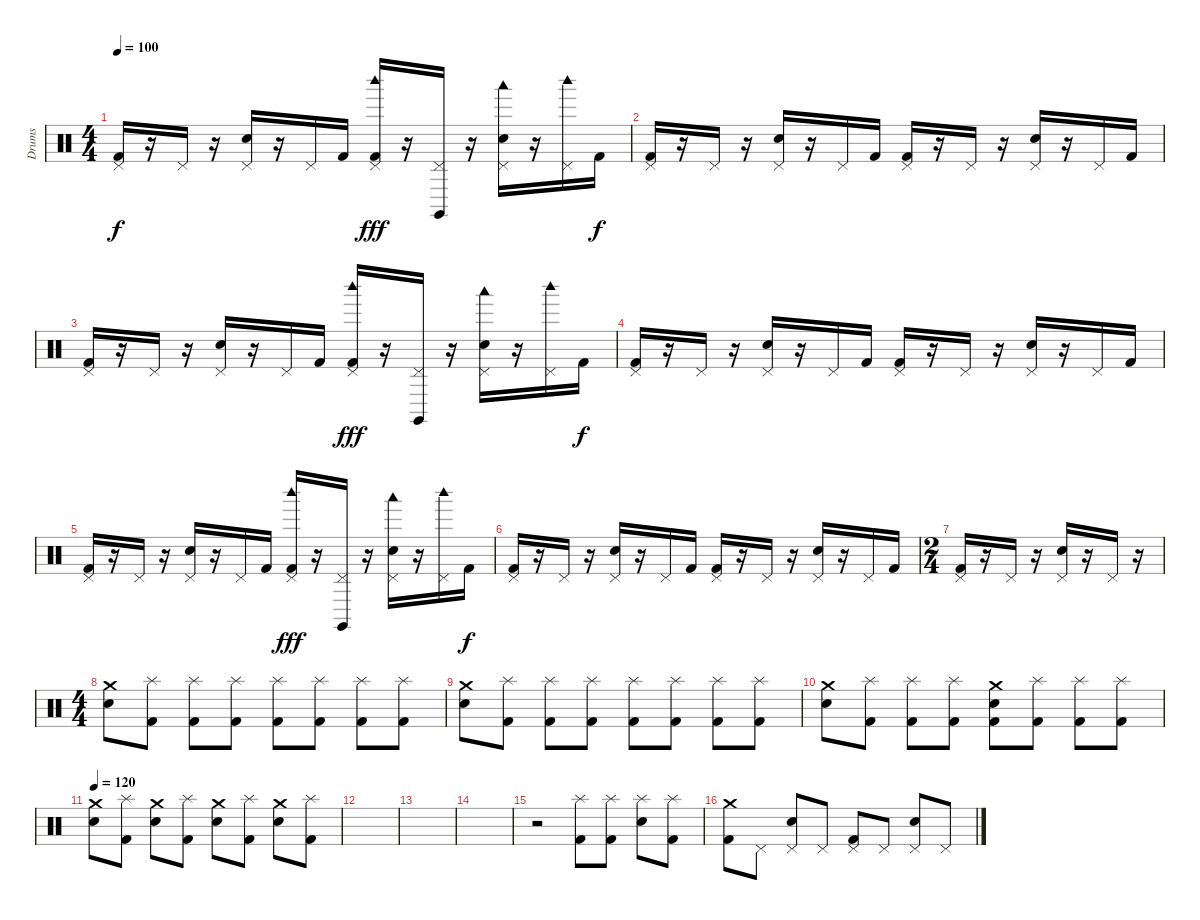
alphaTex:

\track ("Drums" "Drums") {instrument percussion}
\staff {score}
\articulation defaults
\ts (4 4)
\tempo 100
\clef neutral
\ks c
("Pedal Hi-Hat (hit)" "Kick (hit) 2").16{dy f} r.16 "Pedal Hi-Hat (hit)".16 r.16 ("Pedal Hi-Hat (hit)" "Electric Snare (hit)").16 r.16 "Pedal Hi-Hat (hit)".16 "Kick (hit) 2".16 ("Pedal Hi-Hat (hit)" "Woodblock high (hit)" "Kick (hit) 2").16{dy fff} r.16 ("Pedal Hi-Hat (hit)" "Claves (hit)").16 r.16 ("Pedal Hi-Hat (hit)" "Woodblock low (hit)" "Electric Snare (hit)").16 r.16 ("Pedal Hi-Hat (hit)" "Woodblock high (hit)").16 "Kick (hit) 2".16{dy f} |
("Pedal Hi-Hat (hit)" "Kick (hit) 2").16 r.16 "Pedal Hi-Hat (hit)".16 r.16 ("Pedal Hi-Hat (hit)" "Electric Snare (hit)").16 r.16 "Pedal Hi-Hat (hit)".16 "Kick (hit) 2".16 ("Pedal Hi-Hat (hit)" "Kick (hit) 2").16 r.16 "Pedal Hi-Hat (hit)".16 r.16 ("Pedal Hi-Hat (hit)" "Electric Snare (hit)").16 r.16 "Pedal Hi-Hat (hit)".16 "Kick (hit) 2".16 |
("Pedal Hi-Hat (hit)" "Kick (hit) 2").16 r.16 "Pedal Hi-Hat (hit)".16 r.16 ("Pedal Hi-Hat (hit)" "Electric Snare (hit)").16 r.16 "Pedal Hi-Hat (hit)".16 "Kick (hit) 2".16 ("Pedal Hi-Hat (hit)" "Woodblock high (hit)" "Kick (hit) 2").16{dy fff} r.16 ("Pedal Hi-Hat (hit)" "Claves (hit)").16 r.16 ("Pedal Hi-Hat (hit)" "Woodblock low (hit)" "Electric Snare (hit)").16 r.16 ("Pedal Hi-Hat (hit)" "Woodblock high (hit)").16 "Kick (hit) 2".16{dy f} |
("Pedal Hi-Hat (hit)" "Kick (hit) 2").16 r.16 "Pedal Hi-Hat (hit)".16 r.16 ("Pedal Hi-Hat (hit)" "Electric Snare (hit)").16 r.16 "Pedal Hi-Hat (hit)".16 "Kick (hit) 2".16 ("Pedal Hi-Hat (hit)" "Kick (hit) 2").16 r.16 "Pedal Hi-Hat (hit)".16 r.16 ("Pedal Hi-Hat (hit)" "Electric Snare (hit)").16 r.16 "Pedal Hi-Hat (hit)".16 "Kick (hit) 2".16 |
("Pedal Hi-Hat (hit)" "Kick (hit) 2").16 r.16 "Pedal Hi-Hat (hit)".16 r.16 ("Pedal Hi-Hat (hit)" "Electric Snare (hit)").16 r.16 "Pedal Hi-Hat (hit)".16 "Kick (hit) 2".16 ("Pedal Hi-Hat (hit)" "Woodblock high (hit)" "Kick (hit) 2").16{dy fff} r.16 ("Pedal Hi-Hat (hit)" "Claves (hit)").16 r.16 ("Pedal Hi-Hat (hit)" "Woodblock low (hit)" "Electric Snare (hit)").16 r.16 ("Pedal Hi-Hat (hit)" "Woodblock high (hit)").16 "Kick (hit) 2".16{dy f} |
("Pedal Hi-Hat (hit)" "Kick (hit) 2").16 r.16 "Pedal Hi-Hat (hit)".16 r.16 ("Pedal Hi-Hat (hit)" "Electric Snare (hit)").16 r.16 "Pedal Hi-Hat (hit)".16 "Kick (hit) 2".16 ("Pedal Hi-Hat (hit)" "Kick (hit) 2").16 r.16 "Pedal Hi-Hat (hit)".16 r.16 ("Pedal Hi-Hat (hit)" "Electric Snare (hit)").16 r.16 "Pedal Hi-Hat (hit)".16 "Kick (hit) 2".16 |
\ts (2 4)
("Pedal Hi-Hat (hit)" "Kick (hit) 2").16 r.16 "Pedal Hi-Hat (hit)".16 r.16 ("Pedal Hi-Hat (hit)" "Electric Snare (hit)").16 r.16 "Pedal Hi-Hat (hit)".16 r.16 |
\ts (4 4)
("Crash medium (hit)" "Electric Snare (hit)").8 ("Splash (hit)" "Kick (hit) 2").8 ("Splash (hit)" "Kick (hit) 2").8 ("Splash (hit)" "Kick (hit) 2").8 ("Splash (hit)" "Kick (hit) 2").8 ("Splash (hit)" "Kick (hit) 2").8 ("Splash (hit)" "Kick (hit) 2").8 ("Splash (hit)" "Kick (hit) 2").8 |
("Crash medium (hit)" "Electric Snare (hit)").8 ("Splash (hit)" "Kick (hit) 2").8 ("Splash (hit)" "Kick (hit) 2").8 ("Splash (hit)" "Kick (hit) 2").8 ("Splash (hit)" "Kick (hit) 2").8 ("Splash (hit)" "Kick (hit) 2").8 ("Splash (hit)" "Kick (hit) 2").8 ("Splash (hit)" "Kick (hit) 2").8 |
("Crash medium (hit)" "Electric Snare (hit)").8 ("Splash (hit)" "Kick (hit) 2").8 ("Splash (hit)" "Kick (hit) 2").8 ("Splash (hit)" "Kick (hit) 2").8 ("Crash medium (hit)" "Electric Snare (hit)" "Kick (hit) 2").8 ("Splash (hit)" "Kick (hit) 2").8 ("Splash (hit)" "Kick (hit) 2").8 ("Splash (hit)" "Kick (hit) 2").8 |
\tempo 120
("Crash medium (hit)" "Electric Snare (hit)").8 ("Splash (hit)" "Kick (hit) 2").8 ("Crash medium (hit)" "Electric Snare (hit)").8 ("Splash (hit)" "Kick (hit) 2").8 ("Crash medium (hit)" "Electric Snare (hit)").8 ("Splash (hit)" "Kick (hit) 2").8 ("Crash medium (hit)" "Electric Snare (hit)").8 ("Splash (hit)" "Kick (hit) 2").8 |
|
|
|
r.2 ("Splash (hit)" "Kick (hit) 2").8 ("Splash (hit)" "Kick (hit) 2").8 ("Splash (hit)" "Electric Snare (hit)").8 ("Splash (hit)" "Kick (hit) 2").8 |
("Crash medium (hit)" "Kick (hit) 2").8 "Pedal Hi-Hat (hit)".8 ("Pedal Hi-Hat (hit)" "Electric Snare (hit)").8 "Pedal Hi-Hat (hit)".8 ("Pedal Hi-Hat (hit)" "Kick (hit) 2").8 "Pedal Hi-Hat (hit)".8 ("Pedal Hi-Hat (hit)" "Electric Snare (hit)").8 "Pedal Hi-Hat (hit)".8
